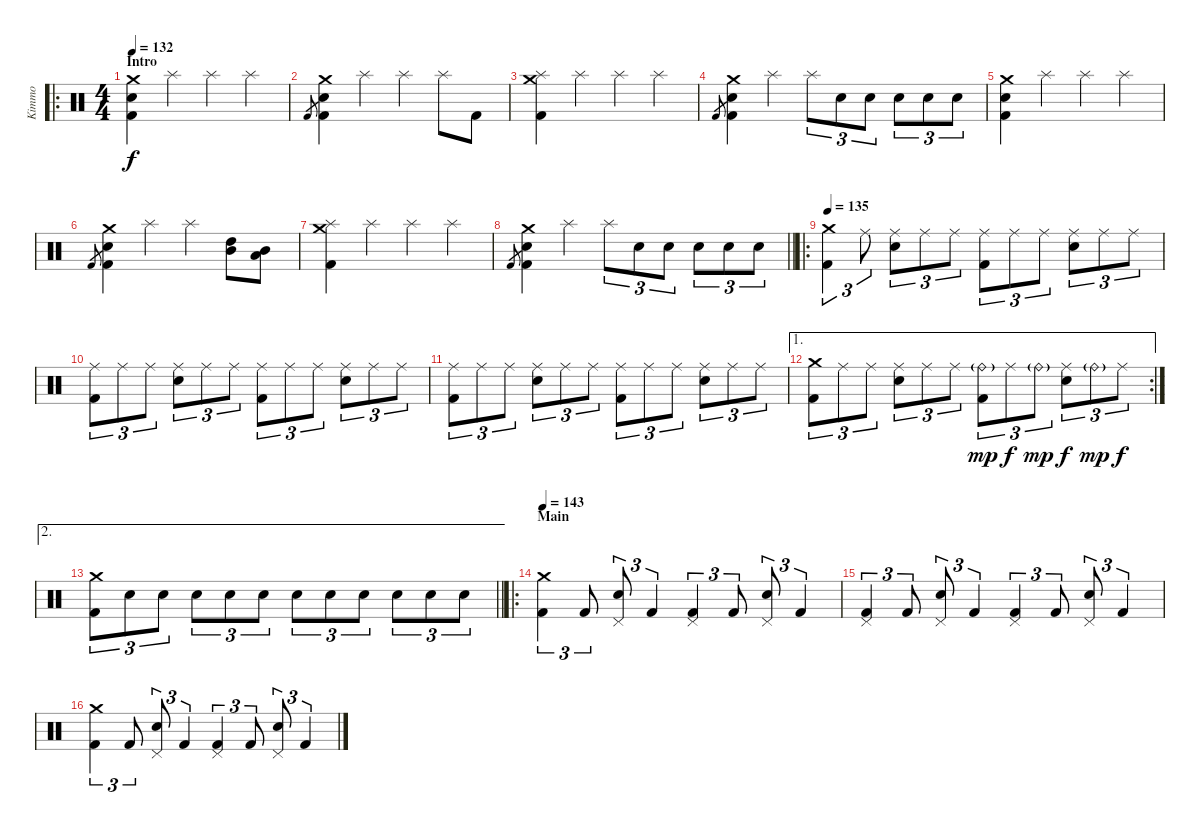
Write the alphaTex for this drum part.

\track ("Kimmo" "Kimmo") {instrument percussion}
\staff {score}
\articulation defaults
\ro
\ts (4 4)
\section ("" "Intro")
\tempo 132
\clef neutral
\ks c
("Kick (hit) 2" "Snare (hit) 2" "Crash medium (hit)").4{dy f} "Splash (hit)".4 "Splash (hit)".4 "Splash (hit)".4 |
"Kick (hit) 2".8{gr} ("Kick (hit) 2" "Snare (hit) 2" "Crash medium (hit)").4 "Splash (hit)".4 "Splash (hit)".4 "Splash (hit)".8 "Kick (hit) 2".8 |
("Kick (hit) 2" "Splash (hit)" "Crash medium (hit)").4 "Splash (hit)".4 "Splash (hit)".4 "Splash (hit)".4 |
"Kick (hit) 2".8{gr} ("Kick (hit) 2" "Snare (hit) 2" "Crash medium (hit)").4 "Splash (hit)".4 "Splash (hit)".8{tu (3 2)} "Snare (hit) 2".8{tu (3 2)} "Snare (hit) 2".8{tu (3 2)} "Snare (hit) 2".8{tu (3 2)} "Snare (hit) 2".8{tu (3 2)} "Snare (hit) 2".8{tu (3 2)} |
("Kick (hit) 2" "Snare (hit) 2" "Crash medium (hit)").4 "Splash (hit)".4 "Splash (hit)".4 "Splash (hit)".4 |
"Kick (hit) 2".8{gr} ("Kick (hit) 2" "Snare (hit) 2" "Crash medium (hit)").4 "Splash (hit)".4 "Splash (hit)".4 ("High Tom (hit)" "Mid Tom (hit)").8 ("Mid Tom (hit)" "Low Tom (hit)").8 |
("Kick (hit) 2" "Splash (hit)" "Crash medium (hit)").4 "Splash (hit)".4 "Splash (hit)".4 "Splash (hit)".4 |
\barLineRight lightlight "Kick (hit) 2".8{gr}
("Kick (hit) 2" "Snare (hit) 2" "Crash medium (hit)").4 "Splash (hit)".4 "Splash (hit)".8{tu (3 2)} "Snare (hit) 2".8{tu (3 2)} "Snare (hit) 2".8{tu (3 2)} "Snare (hit) 2".8{tu (3 2)} "Snare (hit) 2".8{tu (3 2)} "Snare (hit) 2".8{tu (3 2)} |
\ro
\section ("" "")
\tempo 135
("Kick (hit) 2" "Crash medium (hit)").4{tu (3 2)} "Ride (middle)".8{tu (3 2)} ("Snare (hit) 2" "Ride (middle)").8{tu (3 2)} "Ride (middle)".8{tu (3 2)} "Ride (middle)".8{tu (3 2)} ("Kick (hit) 2" "Ride (middle)").8{tu (3 2)} "Ride (middle)".8{tu (3 2)} "Ride (middle)".8{tu (3 2)} ("Snare (hit) 2" "Ride (middle)").8{tu (3 2)} "Ride (middle)".8{tu (3 2)} "Ride (middle)".8{tu (3 2)} |
("Kick (hit) 2" "Ride (middle)").8{tu (3 2)} "Ride (middle)".8{tu (3 2)} "Ride (middle)".8{tu (3 2)} ("Snare (hit) 2" "Ride (middle)").8{tu (3 2)} "Ride (middle)".8{tu (3 2)} "Ride (middle)".8{tu (3 2)} ("Kick (hit) 2" "Ride (middle)").8{tu (3 2)} "Ride (middle)".8{tu (3 2)} "Ride (middle)".8{tu (3 2)} ("Snare (hit) 2" "Ride (middle)").8{tu (3 2)} "Ride (middle)".8{tu (3 2)} "Ride (middle)".8{tu (3 2)} |
("Kick (hit) 2" "Ride (middle)").8{tu (3 2)} "Ride (middle)".8{tu (3 2)} "Ride (middle)".8{tu (3 2)} ("Snare (hit) 2" "Ride (middle)").8{tu (3 2)} "Ride (middle)".8{tu (3 2)} "Ride (middle)".8{tu (3 2)} ("Kick (hit) 2" "Ride (middle)").8{tu (3 2)} "Ride (middle)".8{tu (3 2)} "Ride (middle)".8{tu (3 2)} ("Snare (hit) 2" "Ride (middle)").8{tu (3 2)} "Ride (middle)".8{tu (3 2)} "Ride (middle)".8{tu (3 2)} |
\ae 1
\rc 2
("Kick (hit) 2" "Crash medium (hit)").8{tu (3 2)} "Ride (middle)".8{tu (3 2)} "Ride (middle)".8{tu (3 2)} ("Snare (hit) 2" "Ride (middle)").8{tu (3 2)} "Ride (middle)".8{tu (3 2)} "Ride (middle)".8{tu (3 2)} ("Kick (hit) 2" "Ride (bell)"{g}).8{tu (3 2) dy mp} "Ride (middle)".8{tu (3 2) dy f} "Ride (bell)"{g}.8{tu (3 2) dy mp} ("Snare (hit) 2" "Ride (middle)").8{tu (3 2) dy f} "Ride (bell)"{g}.8{tu (3 2) dy mp} "Ride (middle)".8{tu (3 2) dy f} |
\ae 2
\barLineRight lightlight
("Kick (hit) 2" "Crash medium (hit)").8{tu (3 2)} "Snare (hit) 2".8{tu (3 2)} "Snare (hit) 2".8{tu (3 2)} "Snare (hit) 2".8{tu (3 2)} "Snare (hit) 2".8{tu (3 2)} "Snare (hit) 2".8{tu (3 2)} "Snare (hit) 2".8{tu (3 2)} "Snare (hit) 2".8{tu (3 2)} "Snare (hit) 2".8{tu (3 2)} "Snare (hit) 2".8{tu (3 2)} "Snare (hit) 2".8{tu (3 2)} "Snare (hit) 2".8{tu (3 2)} |
\ro
\section ("" "Main")
\tempo 143
("Kick (hit) 2" "Crash medium (hit)").4{tu (3 2)} "Kick (hit) 2".8{tu (3 2)} ("Snare (hit) 2" "Pedal Hi-Hat (hit)").8{tu (3 2)} "Kick (hit) 2".4{tu (3 2)} ("Kick (hit) 2" "Pedal Hi-Hat (hit)").4{tu (3 2)} "Kick (hit) 2".8{tu (3 2)} ("Snare (hit) 2" "Pedal Hi-Hat (hit)").8{tu (3 2)} "Kick (hit) 2".4{tu (3 2)} |
("Kick (hit) 2" "Pedal Hi-Hat (hit)").4{tu (3 2)} "Kick (hit) 2".8{tu (3 2)} ("Snare (hit) 2" "Pedal Hi-Hat (hit)").8{tu (3 2)} "Kick (hit) 2".4{tu (3 2)} ("Kick (hit) 2" "Pedal Hi-Hat (hit)").4{tu (3 2)} "Kick (hit) 2".8{tu (3 2)} ("Snare (hit) 2" "Pedal Hi-Hat (hit)").8{tu (3 2)} "Kick (hit) 2".4{tu (3 2)} |
("Kick (hit) 2" "Crash medium (hit)").4{tu (3 2)} "Kick (hit) 2".8{tu (3 2)} ("Snare (hit) 2" "Pedal Hi-Hat (hit)").8{tu (3 2)} "Kick (hit) 2".4{tu (3 2)} ("Kick (hit) 2" "Pedal Hi-Hat (hit)").4{tu (3 2)} "Kick (hit) 2".8{tu (3 2)} ("Snare (hit) 2" "Pedal Hi-Hat (hit)").8{tu (3 2)} "Kick (hit) 2".4{tu (3 2)}
